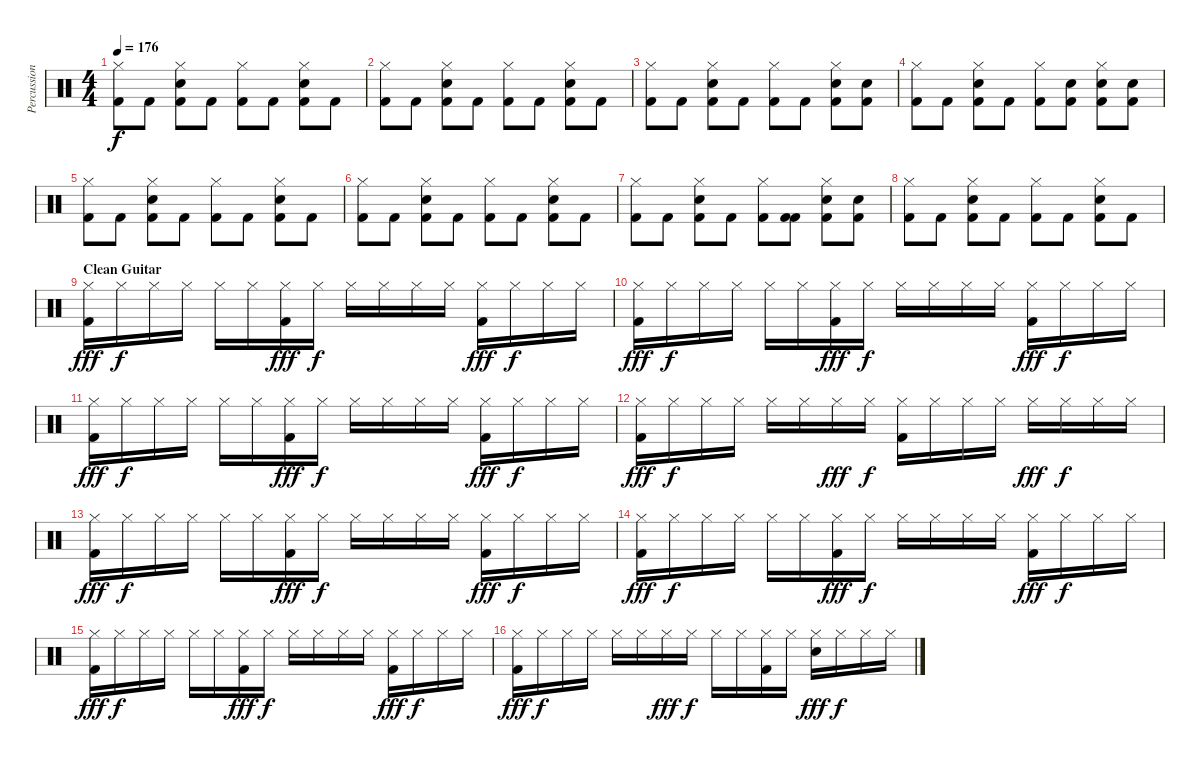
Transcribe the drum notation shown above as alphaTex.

\track ("Percussion" "Percussion") {instrument percussion}
\staff {score}
\articulation defaults
\ts (4 4)
\tempo 176
\clef neutral
\ks c
("Hi-Hat (closed)" "Kick (hit) 2").8{dy f} "Kick (hit) 2".8 ("Hi-Hat (closed)" "Snare (hit) 2" "Kick (hit) 2").8 "Kick (hit) 2".8 ("Hi-Hat (closed)" "Kick (hit) 2").8 "Kick (hit) 2".8 ("Hi-Hat (closed)" "Snare (hit) 2" "Kick (hit) 2").8 "Kick (hit) 2".8 |
("Hi-Hat (closed)" "Kick (hit) 2").8 "Kick (hit) 2".8 ("Hi-Hat (closed)" "Snare (hit) 2" "Kick (hit) 2").8 "Kick (hit) 2".8 ("Hi-Hat (closed)" "Kick (hit) 2").8 "Kick (hit) 2".8 ("Hi-Hat (closed)" "Snare (hit) 2" "Kick (hit) 2").8 "Kick (hit) 2".8 |
("Hi-Hat (closed)" "Kick (hit) 2").8 "Kick (hit) 2".8 ("Hi-Hat (closed)" "Snare (hit) 2" "Kick (hit) 2").8 "Kick (hit) 2".8 ("Hi-Hat (closed)" "Kick (hit) 2").8 "Kick (hit) 2".8 ("Hi-Hat (closed)" "Snare (hit) 2" "Kick (hit) 2").8 ("Snare (hit) 2" "Kick (hit) 2").8 |
("Hi-Hat (closed)" "Kick (hit) 2").8 "Kick (hit) 2".8 ("Hi-Hat (closed)" "Snare (hit) 2" "Kick (hit) 2").8 "Kick (hit) 2".8 ("Hi-Hat (closed)" "Kick (hit) 2").8 ("Snare (hit) 2" "Kick (hit) 2").8 ("Hi-Hat (closed)" "Snare (hit) 2" "Kick (hit) 2").8 ("Snare (hit) 2" "Kick (hit) 2").8 |
("Hi-Hat (closed)" "Kick (hit) 2").8 "Kick (hit) 2".8 ("Hi-Hat (closed)" "Snare (hit) 2" "Kick (hit) 2").8 "Kick (hit) 2".8 ("Hi-Hat (closed)" "Kick (hit) 2").8 "Kick (hit) 2".8 ("Hi-Hat (closed)" "Snare (hit) 2" "Kick (hit) 2").8 "Kick (hit) 2".8 |
("Hi-Hat (closed)" "Kick (hit) 2").8 "Kick (hit) 2".8 ("Hi-Hat (closed)" "Snare (hit) 2" "Kick (hit) 2").8 "Kick (hit) 2".8 ("Hi-Hat (closed)" "Kick (hit) 2").8 "Kick (hit) 2".8 ("Hi-Hat (closed)" "Snare (hit) 2" "Kick (hit) 2").8 "Kick (hit) 2".8 |
("Hi-Hat (closed)" "Kick (hit) 2").8 "Kick (hit) 2".8 ("Hi-Hat (closed)" "Snare (hit) 2" "Kick (hit) 2").8 "Kick (hit) 2".8 ("Hi-Hat (closed)" "Kick (hit) 2").8 ("Kick (hit) 2" "Kick (hit) 2").8 ("Hi-Hat (closed)" "Snare (hit) 2" "Kick (hit) 2").8 ("Snare (hit) 2" "Kick (hit) 2").8 |
("Hi-Hat (closed)" "Kick (hit) 2").8 "Kick (hit) 2".8 ("Hi-Hat (closed)" "Snare (hit) 2" "Kick (hit) 2").8 "Kick (hit) 2".8 ("Hi-Hat (closed)" "Kick (hit) 2").8 "Kick (hit) 2".8 ("Hi-Hat (closed)" "Snare (hit) 2" "Kick (hit) 2").8 "Kick (hit) 2".8 |
\section ("" "Clean Guitar")
("Hi-Hat (closed)" "Kick (hit) 2").16{dy fff} "Hi-Hat (closed)".16{dy f} "Hi-Hat (closed)".16 "Hi-Hat (closed)".16 "Hi-Hat (closed)".16 "Hi-Hat (closed)".16 ("Hi-Hat (closed)" "Kick (hit) 2").16{dy fff} "Hi-Hat (closed)".16{dy f} "Hi-Hat (closed)".16 "Hi-Hat (closed)".16 "Hi-Hat (closed)".16 "Hi-Hat (closed)".16 ("Hi-Hat (closed)" "Kick (hit) 2").16{dy fff} "Hi-Hat (closed)".16{dy f} "Hi-Hat (closed)".16 "Hi-Hat (closed)".16 |
("Hi-Hat (closed)" "Kick (hit) 2").16{dy fff} "Hi-Hat (closed)".16{dy f} "Hi-Hat (closed)".16 "Hi-Hat (closed)".16 "Hi-Hat (closed)".16 "Hi-Hat (closed)".16 ("Hi-Hat (closed)" "Kick (hit) 2").16{dy fff} "Hi-Hat (closed)".16{dy f} "Hi-Hat (closed)".16 "Hi-Hat (closed)".16 "Hi-Hat (closed)".16 "Hi-Hat (closed)".16 ("Hi-Hat (closed)" "Kick (hit) 2").16{dy fff} "Hi-Hat (closed)".16{dy f} "Hi-Hat (closed)".16 "Hi-Hat (closed)".16 |
("Hi-Hat (closed)" "Kick (hit) 2").16{dy fff} "Hi-Hat (closed)".16{dy f} "Hi-Hat (closed)".16 "Hi-Hat (closed)".16 "Hi-Hat (closed)".16 "Hi-Hat (closed)".16 ("Hi-Hat (closed)" "Kick (hit) 2").16{dy fff} "Hi-Hat (closed)".16{dy f} "Hi-Hat (closed)".16 "Hi-Hat (closed)".16 "Hi-Hat (closed)".16 "Hi-Hat (closed)".16 ("Hi-Hat (closed)" "Kick (hit) 2").16{dy fff} "Hi-Hat (closed)".16{dy f} "Hi-Hat (closed)".16 "Hi-Hat (closed)".16 |
("Hi-Hat (closed)" "Kick (hit) 2").16{dy fff} "Hi-Hat (closed)".16{dy f} "Hi-Hat (closed)".16 "Hi-Hat (closed)".16 "Hi-Hat (closed)".16 "Hi-Hat (closed)".16 "Hi-Hat (closed)".16{dy fff} "Hi-Hat (closed)".16{dy f} ("Hi-Hat (closed)" "Kick (hit) 2").16 "Hi-Hat (closed)".16 "Hi-Hat (closed)".16 "Hi-Hat (closed)".16 "Hi-Hat (closed)".16{dy fff} "Hi-Hat (closed)".16{dy f} "Hi-Hat (closed)".16 "Hi-Hat (closed)".16 |
("Hi-Hat (closed)" "Kick (hit) 2").16{dy fff} "Hi-Hat (closed)".16{dy f} "Hi-Hat (closed)".16 "Hi-Hat (closed)".16 "Hi-Hat (closed)".16 "Hi-Hat (closed)".16 ("Hi-Hat (closed)" "Kick (hit) 2").16{dy fff} "Hi-Hat (closed)".16{dy f} "Hi-Hat (closed)".16 "Hi-Hat (closed)".16 "Hi-Hat (closed)".16 "Hi-Hat (closed)".16 ("Hi-Hat (closed)" "Kick (hit) 2").16{dy fff} "Hi-Hat (closed)".16{dy f} "Hi-Hat (closed)".16 "Hi-Hat (closed)".16 |
("Hi-Hat (closed)" "Kick (hit) 2").16{dy fff} "Hi-Hat (closed)".16{dy f} "Hi-Hat (closed)".16 "Hi-Hat (closed)".16 "Hi-Hat (closed)".16 "Hi-Hat (closed)".16 ("Hi-Hat (closed)" "Kick (hit) 2").16{dy fff} "Hi-Hat (closed)".16{dy f} "Hi-Hat (closed)".16 "Hi-Hat (closed)".16 "Hi-Hat (closed)".16 "Hi-Hat (closed)".16 ("Hi-Hat (closed)" "Kick (hit) 2").16{dy fff} "Hi-Hat (closed)".16{dy f} "Hi-Hat (closed)".16 "Hi-Hat (closed)".16 |
("Hi-Hat (closed)" "Kick (hit) 2").16{dy fff} "Hi-Hat (closed)".16{dy f} "Hi-Hat (closed)".16 "Hi-Hat (closed)".16 "Hi-Hat (closed)".16 "Hi-Hat (closed)".16 ("Hi-Hat (closed)" "Kick (hit) 2").16{dy fff} "Hi-Hat (closed)".16{dy f} "Hi-Hat (closed)".16 "Hi-Hat (closed)".16 "Hi-Hat (closed)".16 "Hi-Hat (closed)".16 ("Hi-Hat (closed)" "Kick (hit) 2").16{dy fff} "Hi-Hat (closed)".16{dy f} "Hi-Hat (closed)".16 "Hi-Hat (closed)".16 |
("Hi-Hat (closed)" "Kick (hit) 2").16{dy fff} "Hi-Hat (closed)".16{dy f} "Hi-Hat (closed)".16 "Hi-Hat (closed)".16 "Hi-Hat (closed)".16 "Hi-Hat (closed)".16 "Hi-Hat (closed)".16{dy fff} "Hi-Hat (closed)".16{dy f} "Hi-Hat (closed)".16 "Hi-Hat (closed)".16 ("Hi-Hat (closed)" "Kick (hit) 2").16 "Hi-Hat (closed)".16 ("Hi-Hat (closed)" "Snare (hit) 2").16{dy fff} "Hi-Hat (closed)".16{dy f} "Hi-Hat (closed)".16 "Hi-Hat (closed)".16
